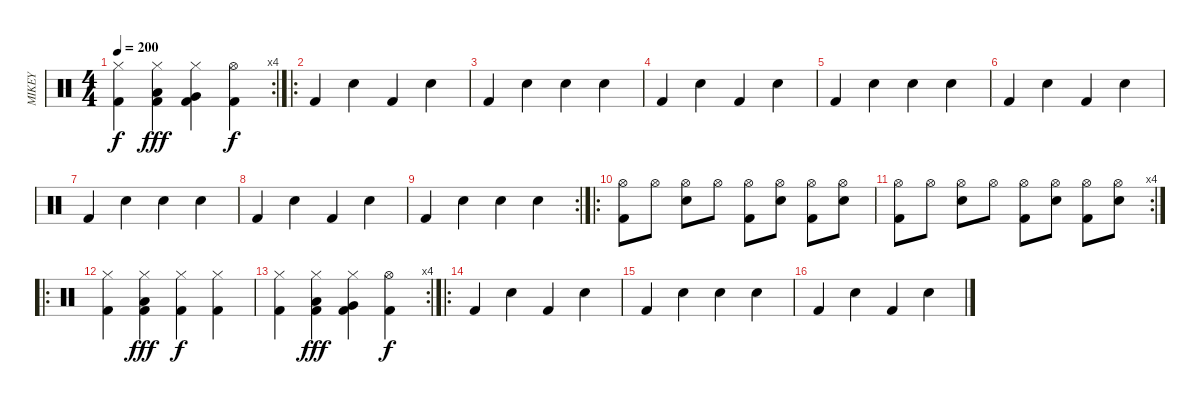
\track ("MIKEY" "MIKEY") {instrument percussion}
\staff {score}
\articulation defaults
\rc 4
\ts (4 4)
\tempo 200
\clef neutral
\ks c
("Hi-Hat (closed)" "Kick (hit) 2").4{dy f} ("Hi-Hat (closed)" "Low Tom (hit)" "Kick (hit) 2").4{dy fff} ("Hi-Hat (closed)" "Very Low Tom (hit)" "Kick (hit) 2").4 ("Hi-Hat (open)" "Kick (hit) 2").4{dy f} |
\ro "Kick (hit) 2".4 "Snare (hit) 2".4 "Kick (hit) 2".4 "Snare (hit) 2".4
|
"Kick (hit) 2".4 "Snare (hit) 2".4 "Snare (hit) 2".4 "Snare (hit) 2".4 |
"Kick (hit) 2".4 "Snare (hit) 2".4 "Kick (hit) 2".4 "Snare (hit) 2".4 |
"Kick (hit) 2".4 "Snare (hit) 2".4 "Snare (hit) 2".4 "Snare (hit) 2".4 |
"Kick (hit) 2".4 "Snare (hit) 2".4 "Kick (hit) 2".4 "Snare (hit) 2".4 |
"Kick (hit) 2".4 "Snare (hit) 2".4 "Snare (hit) 2".4 "Snare (hit) 2".4 |
"Kick (hit) 2".4 "Snare (hit) 2".4 "Kick (hit) 2".4 "Snare (hit) 2".4 |
\rc 2 "Kick (hit) 2".4 "Snare (hit) 2".4 "Snare (hit) 2".4 "Snare (hit) 2".4
|
\ro
("Hi-Hat (open)" "Kick (hit) 2").8 "Hi-Hat (open)".8 ("Hi-Hat (open)" "Electric Snare (hit)").8 "Hi-Hat (open)".8 ("Hi-Hat (open)" "Kick (hit) 2").8 ("Hi-Hat (open)" "Electric Snare (hit)").8 ("Hi-Hat (open)" "Kick (hit) 2").8 ("Hi-Hat (open)" "Electric Snare (hit)").8 |
\rc 4
("Hi-Hat (open)" "Kick (hit) 2").8 "Hi-Hat (open)".8 ("Hi-Hat (open)" "Electric Snare (hit)").8 "Hi-Hat (open)".8 ("Hi-Hat (open)" "Kick (hit) 2").8 ("Hi-Hat (open)" "Electric Snare (hit)").8 ("Hi-Hat (open)" "Kick (hit) 2").8 ("Hi-Hat (open)" "Electric Snare (hit)").8 |
\ro
("Hi-Hat (closed)" "Kick (hit) 2").4 ("Hi-Hat (closed)" "Low Tom (hit)" "Kick (hit) 2").4{dy fff} ("Hi-Hat (closed)" "Kick (hit) 2").4{dy f} ("Hi-Hat (closed)" "Kick (hit) 2").4 |
\rc 4
("Hi-Hat (closed)" "Kick (hit) 2").4 ("Hi-Hat (closed)" "Low Tom (hit)" "Kick (hit) 2").4{dy fff} ("Hi-Hat (closed)" "Very Low Tom (hit)" "Kick (hit) 2").4 ("Hi-Hat (open)" "Kick (hit) 2").4{dy f} |
\ro "Kick (hit) 2".4 "Snare (hit) 2".4 "Kick (hit) 2".4 "Snare (hit) 2".4
|
"Kick (hit) 2".4 "Snare (hit) 2".4 "Snare (hit) 2".4 "Snare (hit) 2".4 |
"Kick (hit) 2".4 "Snare (hit) 2".4 "Kick (hit) 2".4 "Snare (hit) 2".4
